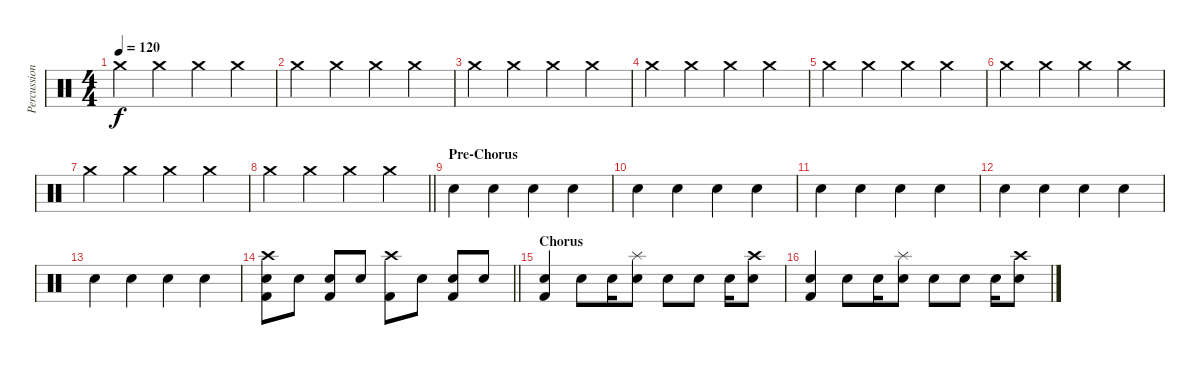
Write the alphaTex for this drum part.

\track ("Percussion" "Percussion") {instrument percussion}
\staff {score}
\articulation defaults
\ts (4 4)
\tempo 120
\clef neutral
\ks c "Crash medium (hit)".4{dy f} "Crash medium (hit)".4 "Crash medium (hit)".4 "Crash medium (hit)".4
|
"Crash medium (hit)".4 "Crash medium (hit)".4 "Crash medium (hit)".4 "Crash medium (hit)".4 |
"Crash medium (hit)".4 "Crash medium (hit)".4 "Crash medium (hit)".4 "Crash medium (hit)".4 |
"Crash medium (hit)".4 "Crash medium (hit)".4 "Crash medium (hit)".4 "Crash medium (hit)".4 |
"Crash medium (hit)".4 "Crash medium (hit)".4 "Crash medium (hit)".4 "Crash medium (hit)".4 |
"Crash medium (hit)".4 "Crash medium (hit)".4 "Crash medium (hit)".4 "Crash medium (hit)".4 |
"Crash medium (hit)".4 "Crash medium (hit)".4 "Crash medium (hit)".4 "Crash medium (hit)".4 |
\barLineRight lightlight "Crash medium (hit)".4 "Crash medium (hit)".4 "Crash medium (hit)".4 "Crash medium (hit)".4
|
\section ("" "Pre-Chorus")
"Electric Snare (hit)".4 "Electric Snare (hit)".4 "Electric Snare (hit)".4 "Electric Snare (hit)".4 |
"Electric Snare (hit)".4 "Electric Snare (hit)".4 "Electric Snare (hit)".4 "Electric Snare (hit)".4 |
"Electric Snare (hit)".4 "Electric Snare (hit)".4 "Electric Snare (hit)".4 "Electric Snare (hit)".4 |
"Electric Snare (hit)".4 "Electric Snare (hit)".4 "Electric Snare (hit)".4 "Electric Snare (hit)".4 |
"Electric Snare (hit)".4 "Electric Snare (hit)".4 "Electric Snare (hit)".4 "Electric Snare (hit)".4 |
\barLineRight lightlight
("Electric Snare (hit)" "Kick (hit) 2" "Crash high (hit)").8 "Electric Snare (hit)".8 ("Electric Snare (hit)" "Kick (hit) 2").8 "Electric Snare (hit)".8 ("Kick (hit) 2" "Crash high (hit)").8 "Electric Snare (hit)".8 ("Electric Snare (hit)" "Kick (hit) 2").8 "Electric Snare (hit)".8 |
\section ("" "Chorus")
("Electric Snare (hit)" "Kick (hit) 2").4 "Electric Snare (hit)".8 "Electric Snare (hit)".16 ("Electric Snare (hit)" "Splash (hit)").8 "Electric Snare (hit)".8 "Electric Snare (hit)".8 "Electric Snare (hit)".16 ("Electric Snare (hit)" "Crash high (hit)").8 |
("Electric Snare (hit)" "Kick (hit) 2").4 "Electric Snare (hit)".8 "Electric Snare (hit)".16 ("Electric Snare (hit)" "Splash (hit)").8 "Electric Snare (hit)".8 "Electric Snare (hit)".8 "Electric Snare (hit)".16 ("Electric Snare (hit)" "Crash high (hit)").8
